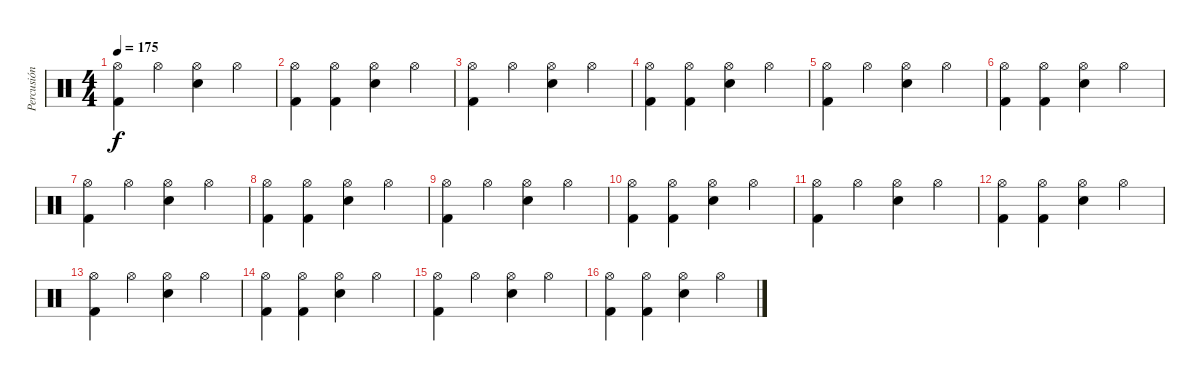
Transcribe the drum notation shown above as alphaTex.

\track ("Percusión" "Percusión") {instrument percussion}
\staff {score}
\articulation defaults
\ts (4 4)
\tempo 175
\clef neutral
\ks c
("Hi-Hat (open)" "Kick (hit) 2").4{dy f} "Hi-Hat (open)".4 ("Hi-Hat (open)" "Snare (hit) 2").4 "Hi-Hat (open)".4 |
("Hi-Hat (open)" "Kick (hit) 2").4 ("Hi-Hat (open)" "Kick (hit) 2").4 ("Hi-Hat (open)" "Snare (hit) 2").4 "Hi-Hat (open)".4 |
("Hi-Hat (open)" "Kick (hit) 2").4 "Hi-Hat (open)".4 ("Hi-Hat (open)" "Snare (hit) 2").4 "Hi-Hat (open)".4 |
("Hi-Hat (open)" "Kick (hit) 2").4 ("Hi-Hat (open)" "Kick (hit) 2").4 ("Hi-Hat (open)" "Snare (hit) 2").4 "Hi-Hat (open)".4 |
("Hi-Hat (open)" "Kick (hit) 2").4 "Hi-Hat (open)".4 ("Hi-Hat (open)" "Snare (hit) 2").4 "Hi-Hat (open)".4 |
("Hi-Hat (open)" "Kick (hit) 2").4 ("Hi-Hat (open)" "Kick (hit) 2").4 ("Hi-Hat (open)" "Snare (hit) 2").4 "Hi-Hat (open)".4 |
("Hi-Hat (open)" "Kick (hit) 2").4 "Hi-Hat (open)".4 ("Hi-Hat (open)" "Snare (hit) 2").4 "Hi-Hat (open)".4 |
("Hi-Hat (open)" "Kick (hit) 2").4 ("Hi-Hat (open)" "Kick (hit) 2").4 ("Hi-Hat (open)" "Snare (hit) 2").4 "Hi-Hat (open)".4 |
("Hi-Hat (open)" "Kick (hit) 2").4 "Hi-Hat (open)".4 ("Hi-Hat (open)" "Snare (hit) 2").4 "Hi-Hat (open)".4 |
("Hi-Hat (open)" "Kick (hit) 2").4 ("Hi-Hat (open)" "Kick (hit) 2").4 ("Hi-Hat (open)" "Snare (hit) 2").4 "Hi-Hat (open)".4 |
("Hi-Hat (open)" "Kick (hit) 2").4 "Hi-Hat (open)".4 ("Hi-Hat (open)" "Snare (hit) 2").4 "Hi-Hat (open)".4 |
("Hi-Hat (open)" "Kick (hit) 2").4 ("Hi-Hat (open)" "Kick (hit) 2").4 ("Hi-Hat (open)" "Snare (hit) 2").4 "Hi-Hat (open)".4 |
("Hi-Hat (open)" "Kick (hit) 2").4 "Hi-Hat (open)".4 ("Hi-Hat (open)" "Snare (hit) 2").4 "Hi-Hat (open)".4 |
("Hi-Hat (open)" "Kick (hit) 2").4 ("Hi-Hat (open)" "Kick (hit) 2").4 ("Hi-Hat (open)" "Snare (hit) 2").4 "Hi-Hat (open)".4 |
("Hi-Hat (open)" "Kick (hit) 2").4 "Hi-Hat (open)".4 ("Hi-Hat (open)" "Snare (hit) 2").4 "Hi-Hat (open)".4 |
("Hi-Hat (open)" "Kick (hit) 2").4 ("Hi-Hat (open)" "Kick (hit) 2").4 ("Hi-Hat (open)" "Snare (hit) 2").4 "Hi-Hat (open)".4
